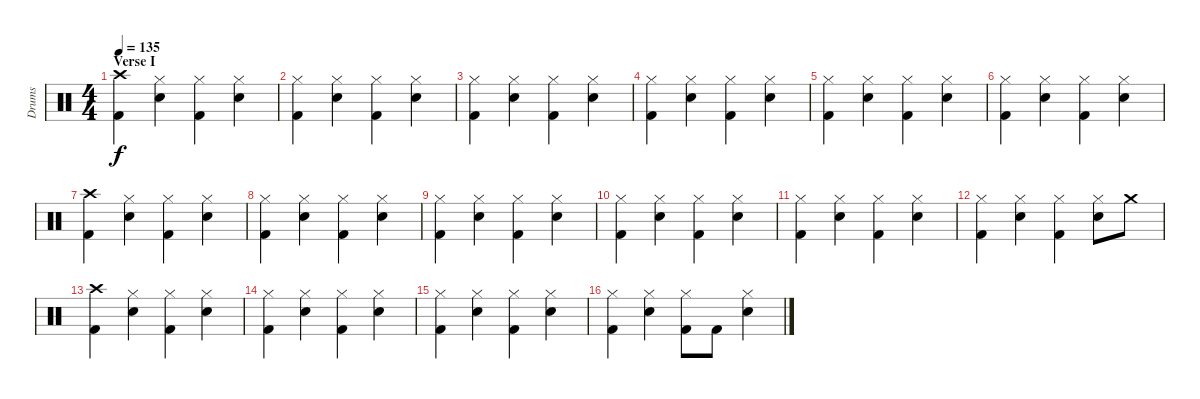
\track ("Drums" "Drums") {instrument percussion}
\staff {score}
\articulation defaults
\ts (4 4)
\section ("" "Verse I")
\tempo 135
\clef neutral
\ks c
("Crash high (hit)" "Kick (hit) 2").4{dy f} ("Hi-Hat (closed)" "Snare (hit) 2").4 ("Hi-Hat (closed)" "Kick (hit) 2").4 ("Hi-Hat (closed)" "Snare (hit) 2").4 |
("Hi-Hat (closed)" "Kick (hit) 2").4 ("Hi-Hat (closed)" "Snare (hit) 2").4 ("Hi-Hat (closed)" "Kick (hit) 2").4 ("Hi-Hat (closed)" "Snare (hit) 2").4 |
("Hi-Hat (closed)" "Kick (hit) 2").4 ("Hi-Hat (closed)" "Snare (hit) 2").4 ("Hi-Hat (closed)" "Kick (hit) 2").4 ("Hi-Hat (closed)" "Snare (hit) 2").4 |
("Hi-Hat (closed)" "Kick (hit) 2").4 ("Hi-Hat (closed)" "Snare (hit) 2").4 ("Hi-Hat (closed)" "Kick (hit) 2").4 ("Hi-Hat (closed)" "Snare (hit) 2").4 |
("Hi-Hat (closed)" "Kick (hit) 2").4 ("Hi-Hat (closed)" "Snare (hit) 2").4 ("Hi-Hat (closed)" "Kick (hit) 2").4 ("Hi-Hat (closed)" "Snare (hit) 2").4 |
("Hi-Hat (closed)" "Kick (hit) 2").4 ("Hi-Hat (closed)" "Snare (hit) 2").4 ("Hi-Hat (closed)" "Kick (hit) 2").4 ("Hi-Hat (closed)" "Snare (hit) 2").4 |
("Crash high (hit)" "Kick (hit) 2").4 ("Hi-Hat (closed)" "Snare (hit) 2").4 ("Hi-Hat (closed)" "Kick (hit) 2").4 ("Hi-Hat (closed)" "Snare (hit) 2").4 |
("Hi-Hat (closed)" "Kick (hit) 2").4 ("Hi-Hat (closed)" "Snare (hit) 2").4 ("Hi-Hat (closed)" "Kick (hit) 2").4 ("Hi-Hat (closed)" "Snare (hit) 2").4 |
("Hi-Hat (closed)" "Kick (hit) 2").4 ("Hi-Hat (closed)" "Snare (hit) 2").4 ("Hi-Hat (closed)" "Kick (hit) 2").4 ("Hi-Hat (closed)" "Snare (hit) 2").4 |
("Hi-Hat (closed)" "Kick (hit) 2").4 ("Hi-Hat (closed)" "Snare (hit) 2").4 ("Hi-Hat (closed)" "Kick (hit) 2").4 ("Hi-Hat (closed)" "Snare (hit) 2").4 |
("Hi-Hat (closed)" "Kick (hit) 2").4 ("Hi-Hat (closed)" "Snare (hit) 2").4 ("Hi-Hat (closed)" "Kick (hit) 2").4 ("Hi-Hat (closed)" "Snare (hit) 2").4 |
("Hi-Hat (closed)" "Kick (hit) 2").4 ("Hi-Hat (closed)" "Snare (hit) 2").4 ("Hi-Hat (closed)" "Kick (hit) 2").4 ("Hi-Hat (closed)" "Snare (hit) 2").8 "Crash medium (hit)".8 |
("Crash high (hit)" "Kick (hit) 2").4 ("Hi-Hat (closed)" "Snare (hit) 2").4 ("Hi-Hat (closed)" "Kick (hit) 2").4 ("Hi-Hat (closed)" "Snare (hit) 2").4 |
("Hi-Hat (closed)" "Kick (hit) 2").4 ("Hi-Hat (closed)" "Snare (hit) 2").4 ("Hi-Hat (closed)" "Kick (hit) 2").4 ("Hi-Hat (closed)" "Snare (hit) 2").4 |
("Hi-Hat (closed)" "Kick (hit) 2").4 ("Hi-Hat (closed)" "Snare (hit) 2").4 ("Hi-Hat (closed)" "Kick (hit) 2").4 ("Hi-Hat (closed)" "Snare (hit) 2").4 |
("Hi-Hat (closed)" "Kick (hit) 2").4 ("Hi-Hat (closed)" "Snare (hit) 2").4 ("Hi-Hat (closed)" "Kick (hit) 2").8 "Kick (hit) 2".8 ("Hi-Hat (closed)" "Snare (hit) 2").4
